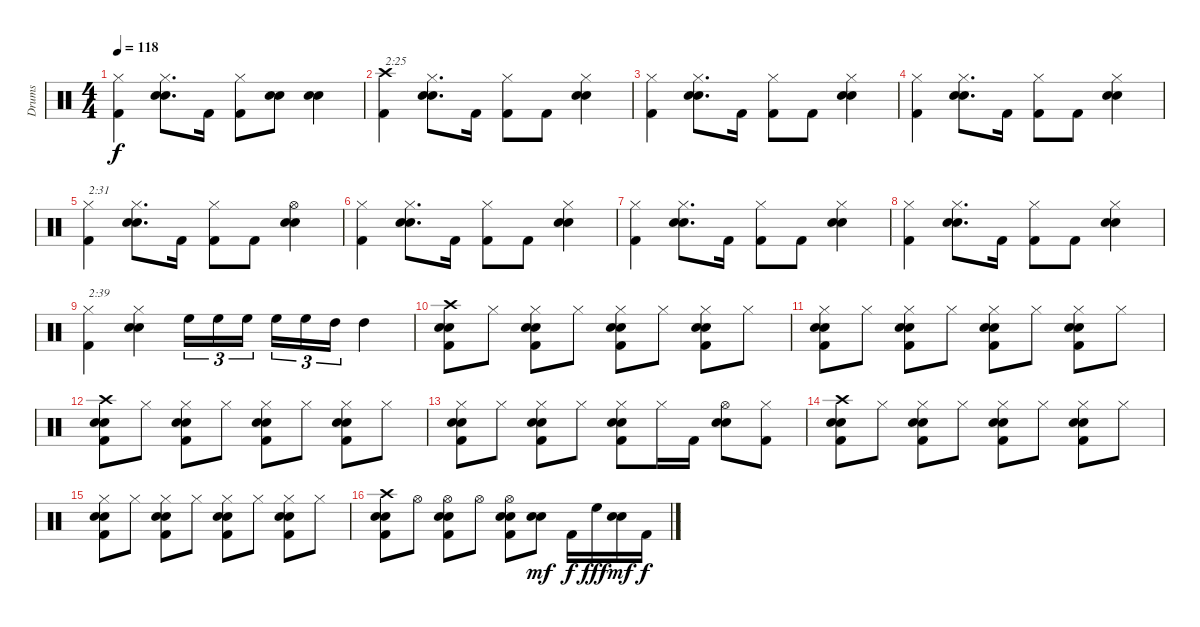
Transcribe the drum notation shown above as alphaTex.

\track ("Drums" "Drums") {instrument percussion}
\staff {score}
\articulation defaults
\ts (4 4)
\tempo 118
\clef neutral
\ks c
("Hi-Hat (closed)" "Kick (hit) 2").4{dy f} ("Hi-Hat (closed)" "Electric Snare (hit)" "Snare (hit) 2").8{d} "Kick (hit) 2".16 ("Hi-Hat (closed)" "Kick (hit) 2").8 ("Electric Snare (hit)" "Snare (hit) 2").8 ("Electric Snare (hit)" "Snare (hit) 2").4 |
("Crash high (hit)" "Kick (hit) 2").4{txt "2:25"} ("Hi-Hat (closed)" "Electric Snare (hit)" "Snare (hit) 2").8{d} "Kick (hit) 2".16 ("Hi-Hat (closed)" "Kick (hit) 2").8 "Kick (hit) 2".8 ("Hi-Hat (closed)" "Electric Snare (hit)" "Snare (hit) 2").4 |
("Hi-Hat (closed)" "Kick (hit) 2").4 ("Hi-Hat (closed)" "Electric Snare (hit)" "Snare (hit) 2").8{d} "Kick (hit) 2".16 ("Hi-Hat (closed)" "Kick (hit) 2").8 "Kick (hit) 2".8 ("Hi-Hat (closed)" "Electric Snare (hit)" "Snare (hit) 2").4 |
("Hi-Hat (closed)" "Kick (hit) 2").4 ("Hi-Hat (closed)" "Electric Snare (hit)" "Snare (hit) 2").8{d} "Kick (hit) 2".16 ("Hi-Hat (closed)" "Kick (hit) 2").8 "Kick (hit) 2".8 ("Hi-Hat (closed)" "Electric Snare (hit)" "Snare (hit) 2").4 |
("Hi-Hat (closed)" "Kick (hit) 2").4{txt "2:31"} ("Hi-Hat (closed)" "Electric Snare (hit)" "Snare (hit) 2").8{d} "Kick (hit) 2".16 ("Hi-Hat (closed)" "Kick (hit) 2").8 "Kick (hit) 2".8 ("Hi-Hat (open)" "Electric Snare (hit)" "Snare (hit) 2").4 |
("Hi-Hat (closed)" "Kick (hit) 2").4 ("Hi-Hat (closed)" "Electric Snare (hit)" "Snare (hit) 2").8{d} "Kick (hit) 2".16 ("Hi-Hat (closed)" "Kick (hit) 2").8 "Kick (hit) 2".8 ("Hi-Hat (closed)" "Electric Snare (hit)" "Snare (hit) 2").4 |
("Hi-Hat (closed)" "Kick (hit) 2").4 ("Hi-Hat (closed)" "Electric Snare (hit)" "Snare (hit) 2").8{d} "Kick (hit) 2".16 ("Hi-Hat (closed)" "Kick (hit) 2").8 "Kick (hit) 2".8 ("Hi-Hat (closed)" "Electric Snare (hit)" "Snare (hit) 2").4 |
("Hi-Hat (closed)" "Kick (hit) 2").4 ("Hi-Hat (closed)" "Electric Snare (hit)" "Snare (hit) 2").8{d} "Kick (hit) 2".16 ("Hi-Hat (closed)" "Kick (hit) 2").8 "Kick (hit) 2".8 ("Hi-Hat (closed)" "Electric Snare (hit)" "Snare (hit) 2").4 |
("Hi-Hat (closed)" "Kick (hit) 2").4{txt "2:39"} ("Hi-Hat (closed)" "Electric Snare (hit)" "Snare (hit) 2").4 "High Floor Tom (hit)".16{tu (3 2)} "High Floor Tom (hit)".16{tu (3 2)} "High Floor Tom (hit)".16{tu (3 2)} "High Floor Tom (hit)".16{tu (3 2)} "High Floor Tom (hit)".16{tu (3 2)} "High Tom (hit)".16{tu (3 2)} "High Tom (hit)".4 |
("Crash high (hit)" "Electric Snare (hit)" "Snare (hit) 2" "Kick (hit) 2").8 "Hi-Hat (closed)".8 ("Hi-Hat (closed)" "Electric Snare (hit)" "Snare (hit) 2" "Kick (hit) 2").8 "Hi-Hat (closed)".8 ("Hi-Hat (closed)" "Electric Snare (hit)" "Snare (hit) 2" "Kick (hit) 2").8 "Hi-Hat (closed)".8 ("Hi-Hat (closed)" "Electric Snare (hit)" "Snare (hit) 2" "Kick (hit) 2").8 "Hi-Hat (closed)".8 |
("Hi-Hat (closed)" "Electric Snare (hit)" "Snare (hit) 2" "Kick (hit) 2").8 "Hi-Hat (closed)".8 ("Hi-Hat (closed)" "Electric Snare (hit)" "Snare (hit) 2" "Kick (hit) 2").8 "Hi-Hat (closed)".8 ("Hi-Hat (closed)" "Electric Snare (hit)" "Snare (hit) 2" "Kick (hit) 2").8 "Hi-Hat (closed)".8 ("Hi-Hat (closed)" "Electric Snare (hit)" "Snare (hit) 2" "Kick (hit) 2").8 "Hi-Hat (closed)".8 |
("Crash high (hit)" "Electric Snare (hit)" "Snare (hit) 2" "Kick (hit) 2").8 "Hi-Hat (closed)".8 ("Hi-Hat (closed)" "Electric Snare (hit)" "Snare (hit) 2" "Kick (hit) 2").8 "Hi-Hat (closed)".8 ("Hi-Hat (closed)" "Electric Snare (hit)" "Snare (hit) 2" "Kick (hit) 2").8 "Hi-Hat (closed)".8 ("Hi-Hat (closed)" "Electric Snare (hit)" "Snare (hit) 2" "Kick (hit) 2").8 "Hi-Hat (closed)".8 |
("Hi-Hat (closed)" "Electric Snare (hit)" "Snare (hit) 2" "Kick (hit) 2").8 "Hi-Hat (closed)".8 ("Hi-Hat (closed)" "Electric Snare (hit)" "Snare (hit) 2" "Kick (hit) 2").8 "Hi-Hat (closed)".8 ("Hi-Hat (closed)" "Electric Snare (hit)" "Snare (hit) 2" "Kick (hit) 2").8 "Hi-Hat (closed)".16 "Kick (hit) 2".16 ("Hi-Hat (open)" "Electric Snare (hit)" "Snare (hit) 2").8 ("Hi-Hat (closed)" "Kick (hit) 2").8 |
("Crash high (hit)" "Electric Snare (hit)" "Snare (hit) 2" "Kick (hit) 2").8 "Hi-Hat (closed)".8 ("Hi-Hat (closed)" "Electric Snare (hit)" "Snare (hit) 2" "Kick (hit) 2").8 "Hi-Hat (closed)".8 ("Hi-Hat (closed)" "Electric Snare (hit)" "Snare (hit) 2" "Kick (hit) 2").8 "Hi-Hat (closed)".8 ("Hi-Hat (closed)" "Electric Snare (hit)" "Snare (hit) 2" "Kick (hit) 2").8 "Hi-Hat (closed)".8 |
("Hi-Hat (closed)" "Electric Snare (hit)" "Snare (hit) 2" "Kick (hit) 2").8 "Hi-Hat (closed)".8 ("Hi-Hat (closed)" "Electric Snare (hit)" "Snare (hit) 2" "Kick (hit) 2").8 "Hi-Hat (closed)".8 ("Hi-Hat (closed)" "Electric Snare (hit)" "Snare (hit) 2" "Kick (hit) 2").8 "Hi-Hat (closed)".8 ("Hi-Hat (closed)" "Electric Snare (hit)" "Snare (hit) 2" "Kick (hit) 2").8 "Hi-Hat (closed)".8 |
("Crash high (hit)" "Electric Snare (hit)" "Snare (hit) 2" "Kick (hit) 2").8 "Hi-Hat (open)".8 ("Hi-Hat (open)" "Electric Snare (hit)" "Snare (hit) 2" "Kick (hit) 2").8 "Hi-Hat (open)".8 ("Hi-Hat (open)" "Electric Snare (hit)" "Snare (hit) 2" "Kick (hit) 2").8 ("Electric Snare (hit)" "Snare (hit) 2").8{dy mf} "Kick (hit) 2".16{dy f} "High Floor Tom (hit)".16{dy fff} ("Electric Snare (hit)" "Snare (hit) 2").16{dy mf} "Kick (hit) 2".16{dy f}
